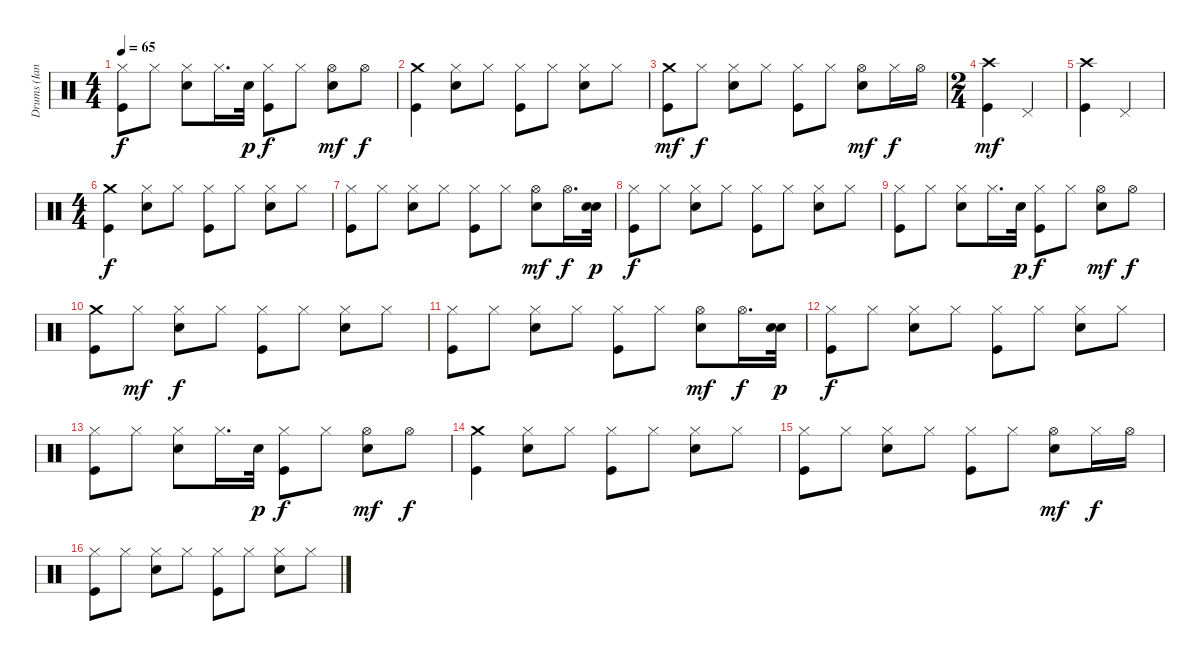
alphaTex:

\track ("Drums (Ian Paice)" "Drums (Ian") {instrument percussion}
\staff {score}
\articulation defaults
\ts (4 4)
\tempo 65
\clef neutral
\ks c
("Hi-Hat (closed)" "Kick (hit)").8{dy f} "Hi-Hat (closed)".8 ("Hi-Hat (closed)" "Electric Snare (hit)").8 "Hi-Hat (closed)".16{d} "Electric Snare (hit)".32{dy p} ("Hi-Hat (closed)" "Kick (hit)").8{dy f} "Hi-Hat (closed)".8 ("Hi-Hat (open)" "Electric Snare (hit)").8{dy mf} "Hi-Hat (open)".8{dy f} |
("Crash medium (hit)" "Kick (hit)").4 ("Hi-Hat (closed)" "Electric Snare (hit)").8 "Hi-Hat (closed)".8 ("Hi-Hat (closed)" "Kick (hit)").8 "Hi-Hat (closed)".8 ("Hi-Hat (closed)" "Electric Snare (hit)").8 "Hi-Hat (closed)".8 |
("Crash medium (hit)" "Kick (hit)").8{dy mf} "Hi-Hat (closed)".8{dy f} ("Hi-Hat (closed)" "Electric Snare (hit)").8 "Hi-Hat (closed)".8 ("Hi-Hat (closed)" "Kick (hit)").8 "Hi-Hat (closed)".8 ("Hi-Hat (open)" "Electric Snare (hit)").8{dy mf} "Hi-Hat (closed)".16{dy f} "Hi-Hat (open)".16 |
\ts (2 4)
("Crash high (hit)" "Kick (hit)").4{dy mf} "Pedal Hi-Hat (hit)".4 |
("Crash high (hit)" "Kick (hit)").4 "Pedal Hi-Hat (hit)".4 |
\ts (4 4)
("Crash medium (hit)" "Kick (hit)").4{dy f} ("Hi-Hat (closed)" "Electric Snare (hit)").8 "Hi-Hat (closed)".8 ("Hi-Hat (closed)" "Kick (hit)").8 "Hi-Hat (closed)".8 ("Hi-Hat (closed)" "Electric Snare (hit)").8 "Hi-Hat (closed)".8 |
("Hi-Hat (closed)" "Kick (hit)").8 "Hi-Hat (closed)".8 ("Hi-Hat (closed)" "Electric Snare (hit)").8 "Hi-Hat (closed)".8 ("Hi-Hat (closed)" "Kick (hit)").8 "Hi-Hat (closed)".8 ("Hi-Hat (open)" "Electric Snare (hit)").8{dy mf} "Hi-Hat (open)".16{d dy f} ("Electric Snare (hit)" "Electric Snare (hit)").32{dy p} |
("Hi-Hat (closed)" "Kick (hit)").8{dy f} "Hi-Hat (closed)".8 ("Hi-Hat (closed)" "Electric Snare (hit)").8 "Hi-Hat (closed)".8 ("Hi-Hat (closed)" "Kick (hit)").8 "Hi-Hat (closed)".8 ("Hi-Hat (closed)" "Electric Snare (hit)").8 "Hi-Hat (closed)".8 |
("Hi-Hat (closed)" "Kick (hit)").8 "Hi-Hat (closed)".8 ("Hi-Hat (closed)" "Electric Snare (hit)").8 "Hi-Hat (closed)".16{d} "Electric Snare (hit)".32{dy p} ("Hi-Hat (closed)" "Kick (hit)").8{dy f} "Hi-Hat (closed)".8 ("Hi-Hat (open)" "Electric Snare (hit)").8{dy mf} "Hi-Hat (open)".8{dy f} |
("Crash medium (hit)" "Kick (hit)").8 "Hi-Hat (closed)".8{dy mf} ("Hi-Hat (closed)" "Electric Snare (hit)").8{dy f} "Hi-Hat (closed)".8 ("Hi-Hat (closed)" "Kick (hit)").8 "Hi-Hat (closed)".8 ("Hi-Hat (closed)" "Electric Snare (hit)").8 "Hi-Hat (closed)".8 |
("Hi-Hat (closed)" "Kick (hit)").8 "Hi-Hat (closed)".8 ("Hi-Hat (closed)" "Electric Snare (hit)").8 "Hi-Hat (closed)".8 ("Hi-Hat (closed)" "Kick (hit)").8 "Hi-Hat (closed)".8 ("Hi-Hat (open)" "Electric Snare (hit)").8{dy mf} "Hi-Hat (open)".16{d dy f} ("Electric Snare (hit)" "Electric Snare (hit)").32{dy p} |
("Hi-Hat (closed)" "Kick (hit)").8{dy f} "Hi-Hat (closed)".8 ("Hi-Hat (closed)" "Electric Snare (hit)").8 "Hi-Hat (closed)".8 ("Hi-Hat (closed)" "Kick (hit)").8 "Hi-Hat (closed)".8 ("Hi-Hat (closed)" "Electric Snare (hit)").8 "Hi-Hat (closed)".8 |
("Hi-Hat (closed)" "Kick (hit)").8 "Hi-Hat (closed)".8 ("Hi-Hat (closed)" "Electric Snare (hit)").8 "Hi-Hat (closed)".16{d} "Electric Snare (hit)".32{dy p} ("Hi-Hat (closed)" "Kick (hit)").8{dy f} "Hi-Hat (closed)".8 ("Hi-Hat (open)" "Electric Snare (hit)").8{dy mf} "Hi-Hat (open)".8{dy f} |
("Crash medium (hit)" "Kick (hit)").4 ("Hi-Hat (closed)" "Electric Snare (hit)").8 "Hi-Hat (closed)".8 ("Hi-Hat (closed)" "Kick (hit)").8 "Hi-Hat (closed)".8 ("Hi-Hat (closed)" "Electric Snare (hit)").8 "Hi-Hat (closed)".8 |
("Hi-Hat (closed)" "Kick (hit)").8 "Hi-Hat (closed)".8 ("Hi-Hat (closed)" "Electric Snare (hit)").8 "Hi-Hat (closed)".8 ("Hi-Hat (closed)" "Kick (hit)").8 "Hi-Hat (closed)".8 ("Hi-Hat (open)" "Electric Snare (hit)").8{dy mf} "Hi-Hat (closed)".16{dy f} "Hi-Hat (open)".16 |
("Hi-Hat (closed)" "Kick (hit)").8 "Hi-Hat (closed)".8 ("Hi-Hat (closed)" "Electric Snare (hit)").8 "Hi-Hat (closed)".8 ("Hi-Hat (closed)" "Kick (hit)").8 "Hi-Hat (closed)".8 ("Hi-Hat (closed)" "Electric Snare (hit)").8 "Hi-Hat (closed)".8
